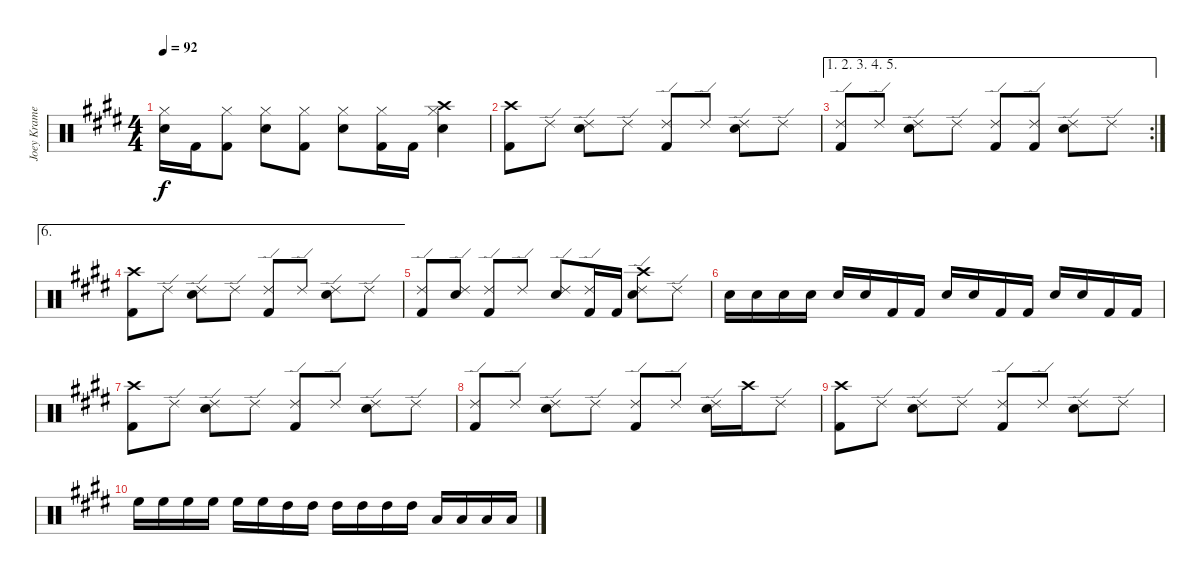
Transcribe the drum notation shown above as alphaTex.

\track ("Joey Kramer" "Joey Krame") {instrument percussion}
\staff {score}
\articulation defaults
\ts (4 4)
\tempo 92
\clef neutral
\ks e
("Hi-Hat (closed)" "Electric Snare (hit)").16{dy f} "Kick (hit) 2".16 ("Hi-Hat (closed)" "Kick (hit) 2").8 ("Hi-Hat (closed)" "Electric Snare (hit)").8 ("Hi-Hat (closed)" "Kick (hit) 2").8 ("Hi-Hat (closed)" "Electric Snare (hit)").8 ("Hi-Hat (closed)" "Kick (hit) 2").16 "Kick (hit) 2".16 ("Crash high (hit)" "Hi-Hat (closed)" "Electric Snare (hit)").4 |
("Crash high (hit)" "Kick (hit) 2").8 "Ride (edge) 2".8 ("Ride (edge) 2" "Electric Snare (hit)").8 "Ride (edge) 2".8 ("Ride (edge) 2" "Kick (hit) 2").8 "Ride (edge) 2".8 ("Ride (edge) 2" "Electric Snare (hit)").8 "Ride (edge) 2".8 |
\ae (1 2 3 4 5)
\rc 2
("Ride (edge) 2" "Kick (hit) 2").8 "Ride (edge) 2".8 ("Ride (edge) 2" "Electric Snare (hit)").8 "Ride (edge) 2".8 ("Ride (edge) 2" "Kick (hit) 2").8 ("Ride (edge) 2" "Kick (hit) 2").8 ("Ride (edge) 2" "Electric Snare (hit)").8 "Ride (edge) 2".8 |
\ae 6
("Crash high (hit)" "Kick (hit) 2").8 "Ride (edge) 2".8 ("Ride (edge) 2" "Electric Snare (hit)").8 "Ride (edge) 2".8 ("Ride (edge) 2" "Kick (hit) 2").8 "Ride (edge) 2".8 ("Ride (edge) 2" "Electric Snare (hit)").8 "Ride (edge) 2".8 |
("Ride (edge) 2" "Kick (hit) 2").8 ("Ride (edge) 2" "Electric Snare (hit)").8 ("Ride (edge) 2" "Kick (hit) 2").8 "Ride (edge) 2".8 ("Ride (edge) 2" "Electric Snare (hit)").8 ("Ride (edge) 2" "Kick (hit) 2").16 "Kick (hit) 2".16 ("Crash high (hit)" "Ride (edge) 2" "Electric Snare (hit)").8 "Ride (edge) 2".8 |
"Electric Snare (hit)".16 "Electric Snare (hit)".16 "Electric Snare (hit)".16 "Electric Snare (hit)".16 "Electric Snare (hit)".16 "Electric Snare (hit)".16 "Kick (hit) 2".16 "Kick (hit) 2".16 "Electric Snare (hit)".16 "Electric Snare (hit)".16 "Kick (hit) 2".16 "Kick (hit) 2".16 "Electric Snare (hit)".16 "Electric Snare (hit)".16 "Kick (hit) 2".16 "Kick (hit) 2".16 |
("Crash high (hit)" "Kick (hit) 2").8 "Ride (edge) 2".8 ("Ride (edge) 2" "Electric Snare (hit)").8 "Ride (edge) 2".8 ("Ride (edge) 2" "Kick (hit) 2").8 "Ride (edge) 2".8 ("Ride (edge) 2" "Electric Snare (hit)").8 "Ride (edge) 2".8 |
("Ride (edge) 2" "Kick (hit) 2").8 "Ride (edge) 2".8 ("Ride (edge) 2" "Electric Snare (hit)").8 "Ride (edge) 2".8 ("Ride (edge) 2" "Kick (hit) 2").8 "Ride (edge) 2".8 ("Ride (edge) 2" "Electric Snare (hit)").16 "Crash high (hit)".16 "Ride (edge) 2".8 |
("Crash high (hit)" "Kick (hit) 2").8 "Ride (edge) 2".8 ("Ride (edge) 2" "Electric Snare (hit)").8 "Ride (edge) 2".8 ("Ride (edge) 2" "Kick (hit) 2").8 "Ride (edge) 2".8 ("Ride (edge) 2" "Electric Snare (hit)").8 "Ride (edge) 2".8 |
"High Floor Tom (hit)".16 "High Floor Tom (hit)".16 "High Floor Tom (hit)".16 "High Floor Tom (hit)".16 "High Floor Tom (hit)".16 "High Floor Tom (hit)".16 "High Tom (hit)".16 "High Tom (hit)".16 "High Tom (hit)".16 "High Tom (hit)".16 "High Tom (hit)".16 "High Tom (hit)".16 "Low Tom (hit)".16 "Low Tom (hit)".16 "Low Tom (hit)".16 "Low Tom (hit)".16
